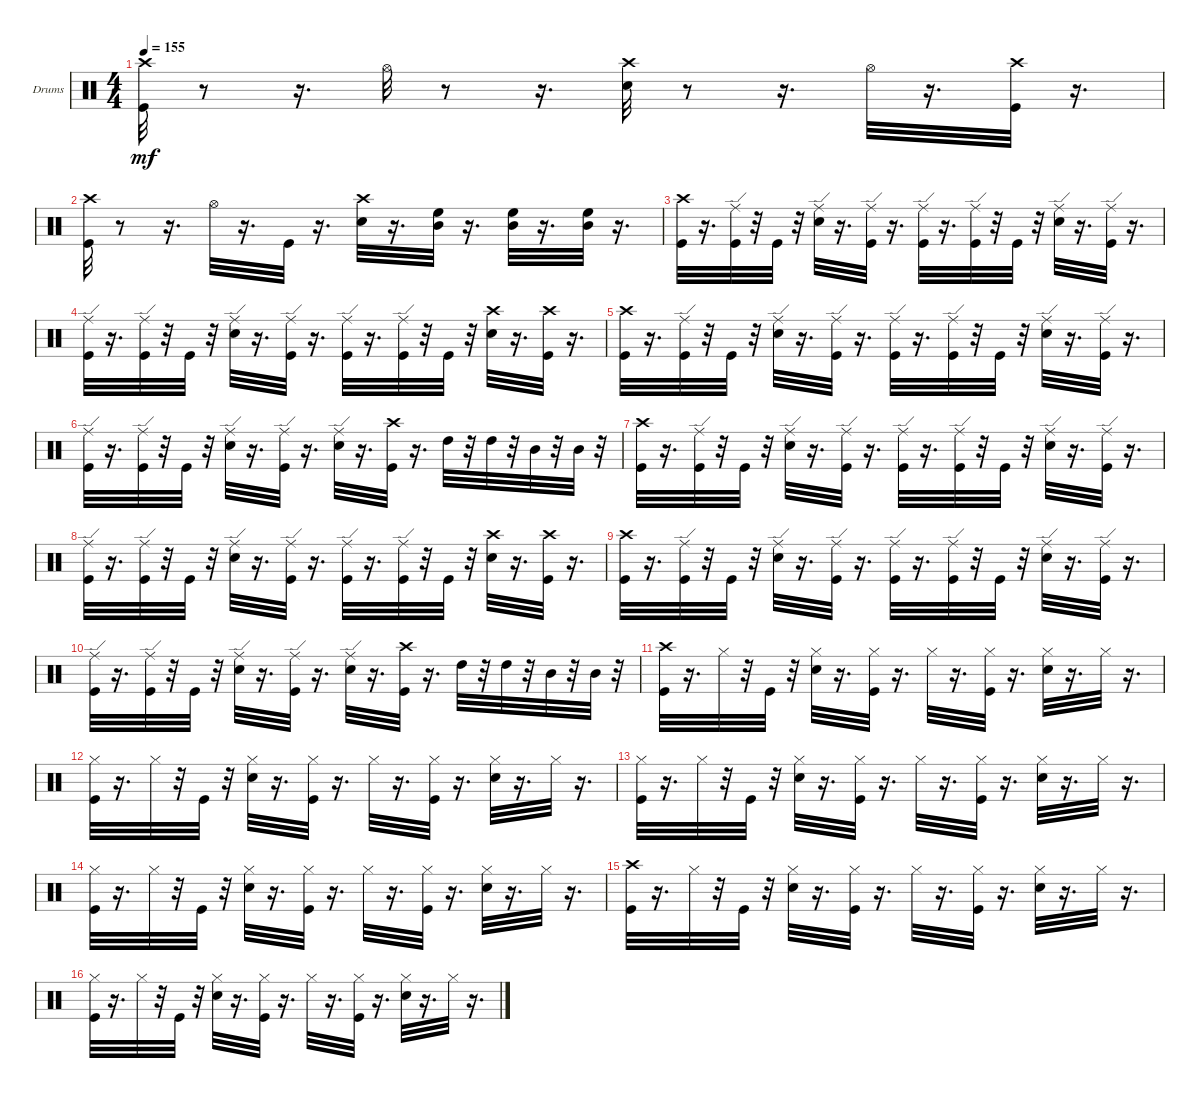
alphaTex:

\bracketExtendMode groupsimilarinstruments
\firstSystemTrackNameOrientation horizontal
\otherSystemsTrackNameOrientation horizontal
\track ("" "Drums") {instrument percussion}
\staff {score}
\articulation defaults
\ts (4 4)
\tempo 155
\clef neutral
\ks c
("Crash high (hit)" "Kick (hit)").32{dy mf} r.8 r.16{d} "Hi-Hat (open)".32 r.8 r.16{d} ("Snare (hit) 2" "Crash high (hit)").32 r.8 r.16{d} "Hi-Hat (open)".32 r.16{d} ("Crash high (hit)" "Kick (hit)").32 r.16{d} |
("Crash high (hit)" "Kick (hit)").32 r.8 r.16{d} "Hi-Hat (open)".32 r.16{d} "Kick (hit)".32 r.16{d} ("Crash high (hit)" "Snare (hit) 2").32 r.16{d} ("High Floor Tom (hit)" "Mid Tom (hit)").32 r.16{d} ("High Floor Tom (hit)" "Mid Tom (hit)").32 r.16{d} ("High Floor Tom (hit)" "Mid Tom (hit)").32 r.16{d} |
("Kick (hit)" "Crash high (hit)").32 r.16{d} ("Kick (hit)" "Ride (edge)").32 r.32 "Kick (hit)".32 r.32 ("Snare (hit) 2" "Ride (edge)").32 r.16{d} ("Kick (hit)" "Ride (edge)").32 r.16{d} ("Kick (hit)" "Ride (edge)").32 r.16{d} ("Kick (hit)" "Ride (edge)").32 r.32 "Kick (hit)".32 r.32 ("Snare (hit) 2" "Ride (edge)").32 r.16{d} ("Kick (hit)" "Ride (edge)").32 r.16{d} |
("Kick (hit)" "Ride (edge)").32 r.16{d} ("Kick (hit)" "Ride (edge)").32 r.32 "Kick (hit)".32 r.32 ("Snare (hit) 2" "Ride (edge)").32 r.16{d} ("Kick (hit)" "Ride (edge)").32 r.16{d} ("Kick (hit)" "Ride (edge)").32 r.16{d} ("Ride (edge)" "Kick (hit)").32 r.32 "Kick (hit)".32 r.32 ("Crash high (hit)" "Snare (hit) 2").32 r.16{d} ("Crash high (hit)" "Kick (hit)").32 r.16{d} |
("Kick (hit)" "Crash high (hit)").32 r.16{d} ("Kick (hit)" "Ride (edge)").32 r.32 "Kick (hit)".32 r.32 ("Snare (hit) 2" "Ride (edge)").32 r.16{d} ("Kick (hit)" "Ride (edge)").32 r.16{d} ("Kick (hit)" "Ride (edge)").32 r.16{d} ("Kick (hit)" "Ride (edge)").32 r.32 "Kick (hit)".32 r.32 ("Snare (hit) 2" "Ride (edge)").32 r.16{d} ("Kick (hit)" "Ride (edge)").32 r.16{d} |
("Ride (edge)" "Kick (hit)").32 r.16{d} ("Kick (hit)" "Ride (edge)").32 r.32 "Kick (hit)".32 r.32 ("Snare (hit) 2" "Ride (edge)").32 r.16{d} ("Kick (hit)" "Ride (edge)").32 r.16{d} ("Snare (hit) 2" "Ride (edge)").32 r.16{d} ("Crash high (hit)" "Kick (hit)").32 r.16{d} "High Tom (hit)".32 r.32 "High Tom (hit)".32 r.32 "Mid Tom (hit)".32 r.32 "Mid Tom (hit)".32 r.32 |
("Kick (hit)" "Crash high (hit)").32 r.16{d} ("Kick (hit)" "Ride (edge)").32 r.32 "Kick (hit)".32 r.32 ("Snare (hit) 2" "Ride (edge)").32 r.16{d} ("Kick (hit)" "Ride (edge)").32 r.16{d} ("Kick (hit)" "Ride (edge)").32 r.16{d} ("Kick (hit)" "Ride (edge)").32 r.32 "Kick (hit)".32 r.32 ("Snare (hit) 2" "Ride (edge)").32 r.16{d} ("Kick (hit)" "Ride (edge)").32 r.16{d} |
("Kick (hit)" "Ride (edge)").32 r.16{d} ("Kick (hit)" "Ride (edge)").32 r.32 "Kick (hit)".32 r.32 ("Snare (hit) 2" "Ride (edge)").32 r.16{d} ("Kick (hit)" "Ride (edge)").32 r.16{d} ("Kick (hit)" "Ride (edge)").32 r.16{d} ("Ride (edge)" "Kick (hit)").32 r.32 "Kick (hit)".32 r.32 ("Crash high (hit)" "Snare (hit) 2").32 r.16{d} ("Crash high (hit)" "Kick (hit)").32 r.16{d} |
("Kick (hit)" "Crash high (hit)").32 r.16{d} ("Kick (hit)" "Ride (edge)").32 r.32 "Kick (hit)".32 r.32 ("Snare (hit) 2" "Ride (edge)").32 r.16{d} ("Kick (hit)" "Ride (edge)").32 r.16{d} ("Kick (hit)" "Ride (edge)").32 r.16{d} ("Kick (hit)" "Ride (edge)").32 r.32 "Kick (hit)".32 r.32 ("Snare (hit) 2" "Ride (edge)").32 r.16{d} ("Kick (hit)" "Ride (edge)").32 r.16{d} |
("Ride (edge)" "Kick (hit)").32 r.16{d} ("Kick (hit)" "Ride (edge)").32 r.32 "Kick (hit)".32 r.32 ("Snare (hit) 2" "Ride (edge)").32 r.16{d} ("Kick (hit)" "Ride (edge)").32 r.16{d} ("Snare (hit) 2" "Ride (edge)").32 r.16{d} ("Crash high (hit)" "Kick (hit)").32 r.16{d} "High Tom (hit)".32 r.32 "High Tom (hit)".32 r.32 "Mid Tom (hit)".32 r.32 "Mid Tom (hit)".32 r.32 |
("Crash high (hit)" "Kick (hit)").32 r.16{d} "Hi-Hat (closed)".32 r.32 "Kick (hit)".32 r.32 ("Hi-Hat (closed)" "Snare (hit) 2").32 r.16{d} ("Kick (hit)" "Hi-Hat (closed)").32 r.16{d} "Hi-Hat (closed)".32 r.16{d} ("Kick (hit)" "Hi-Hat (closed)").32 r.16{d} ("Hi-Hat (closed)" "Snare (hit) 2").32 r.16{d} "Hi-Hat (closed)".32 r.16{d} |
("Hi-Hat (closed)" "Kick (hit)").32 r.16{d} "Hi-Hat (closed)".32 r.32 "Kick (hit)".32 r.32 ("Hi-Hat (closed)" "Snare (hit) 2").32 r.16{d} ("Kick (hit)" "Hi-Hat (closed)").32 r.16{d} "Hi-Hat (closed)".32 r.16{d} ("Kick (hit)" "Hi-Hat (closed)").32 r.16{d} ("Hi-Hat (closed)" "Snare (hit) 2").32 r.16{d} "Hi-Hat (closed)".32 r.16{d} |
("Hi-Hat (closed)" "Kick (hit)").32 r.16{d} "Hi-Hat (closed)".32 r.32 "Kick (hit)".32 r.32 ("Hi-Hat (closed)" "Snare (hit) 2").32 r.16{d} ("Kick (hit)" "Hi-Hat (closed)").32 r.16{d} "Hi-Hat (closed)".32 r.16{d} ("Kick (hit)" "Hi-Hat (closed)").32 r.16{d} ("Hi-Hat (closed)" "Snare (hit) 2").32 r.16{d} "Hi-Hat (closed)".32 r.16{d} |
("Hi-Hat (closed)" "Kick (hit)").32 r.16{d} "Hi-Hat (closed)".32 r.32 "Kick (hit)".32 r.32 ("Hi-Hat (closed)" "Snare (hit) 2").32 r.16{d} ("Kick (hit)" "Hi-Hat (closed)").32 r.16{d} "Hi-Hat (closed)".32 r.16{d} ("Kick (hit)" "Hi-Hat (closed)").32 r.16{d} ("Hi-Hat (closed)" "Snare (hit) 2").32 r.16{d} "Hi-Hat (closed)".32 r.16{d} |
("Crash high (hit)" "Kick (hit)").32 r.16{d} "Hi-Hat (closed)".32 r.32 "Kick (hit)".32 r.32 ("Hi-Hat (closed)" "Snare (hit) 2").32 r.16{d} ("Kick (hit)" "Hi-Hat (closed)").32 r.16{d} "Hi-Hat (closed)".32 r.16{d} ("Kick (hit)" "Hi-Hat (closed)").32 r.16{d} ("Hi-Hat (closed)" "Snare (hit) 2").32 r.16{d} "Hi-Hat (closed)".32 r.16{d} |
("Hi-Hat (closed)" "Kick (hit)").32 r.16{d} "Hi-Hat (closed)".32 r.32 "Kick (hit)".32 r.32 ("Hi-Hat (closed)" "Snare (hit) 2").32 r.16{d} ("Kick (hit)" "Hi-Hat (closed)").32 r.16{d} "Hi-Hat (closed)".32 r.16{d} ("Kick (hit)" "Hi-Hat (closed)").32 r.16{d} ("Hi-Hat (closed)" "Snare (hit) 2").32 r.16{d} "Hi-Hat (closed)".32 r.16{d}
